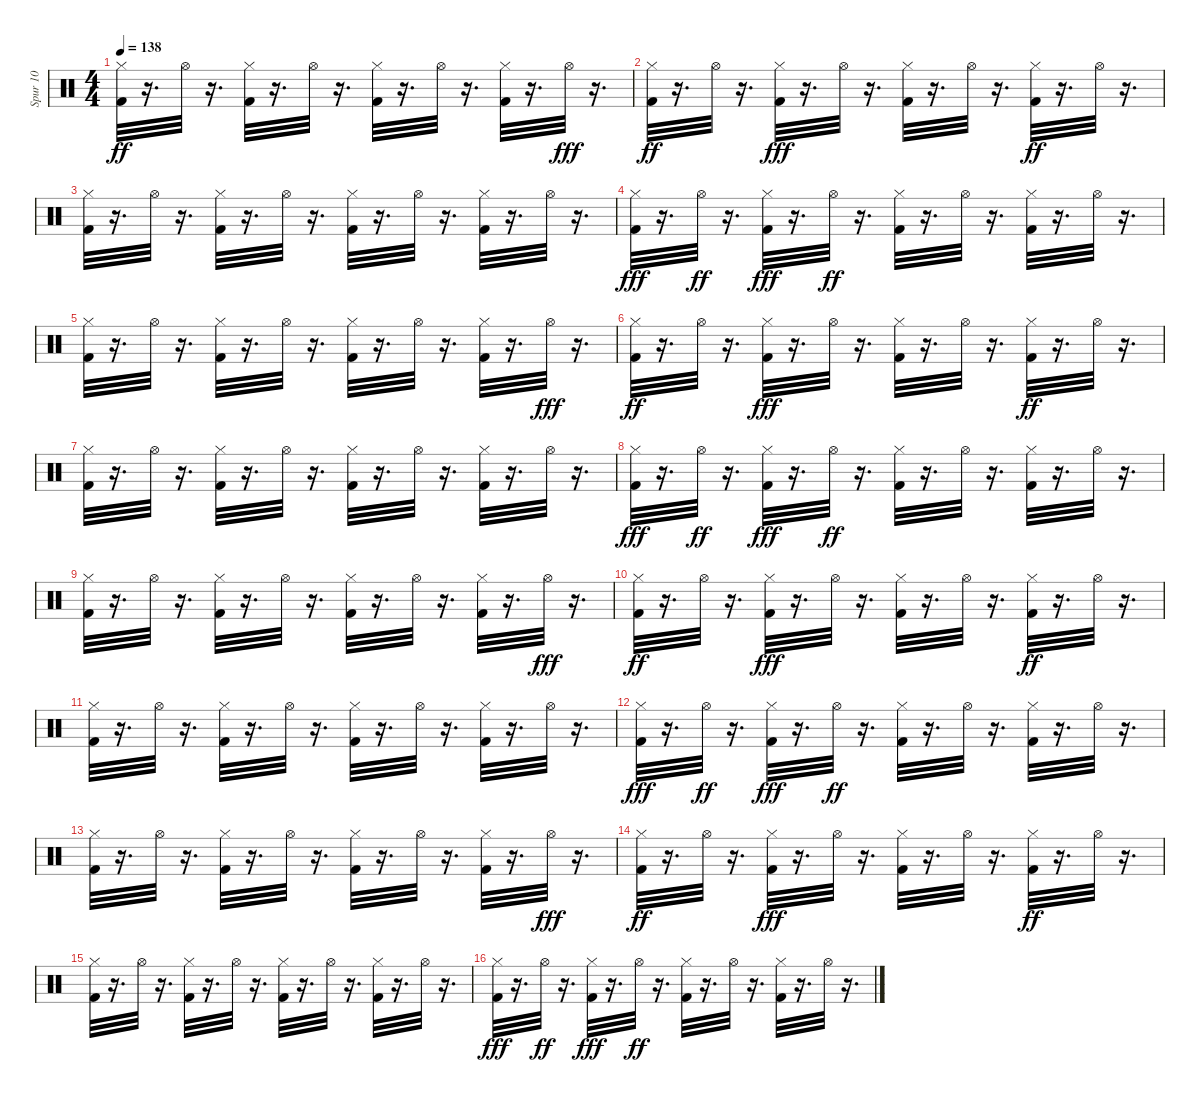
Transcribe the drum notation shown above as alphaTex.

\track ("Spur 10" "Spur 10") {instrument percussion}
\staff {score}
\articulation defaults
\ts (4 4)
\tempo 138
\clef neutral
\ks c
("Kick (hit) 2" "Hi-Hat (closed)").32{dy ff} r.16{d} "Hi-Hat (open)".32 r.16{d} ("Kick (hit) 2" "Hi-Hat (closed)").32 r.16{d} "Hi-Hat (open)".32 r.16{d} ("Kick (hit) 2" "Hi-Hat (closed)").32 r.16{d} "Hi-Hat (open)".32 r.16{d} ("Kick (hit) 2" "Hi-Hat (closed)").32 r.16{d} "Hi-Hat (open)".32{dy fff} r.16{d} |
("Kick (hit) 2" "Hi-Hat (closed)").32{dy ff} r.16{d} "Hi-Hat (open)".32 r.16{d} ("Kick (hit) 2" "Hi-Hat (closed)").32{dy fff} r.16{d} "Hi-Hat (open)".32 r.16{d} ("Kick (hit) 2" "Hi-Hat (closed)").32 r.16{d} "Hi-Hat (open)".32 r.16{d} ("Kick (hit) 2" "Hi-Hat (closed)").32{dy ff} r.16{d} "Hi-Hat (open)".32 r.16{d} |
("Kick (hit) 2" "Hi-Hat (closed)").32 r.16{d} "Hi-Hat (open)".32 r.16{d} ("Kick (hit) 2" "Hi-Hat (closed)").32 r.16{d} "Hi-Hat (open)".32 r.16{d} ("Kick (hit) 2" "Hi-Hat (closed)").32 r.16{d} "Hi-Hat (open)".32 r.16{d} ("Kick (hit) 2" "Hi-Hat (closed)").32 r.16{d} "Hi-Hat (open)".32 r.16{d} |
("Kick (hit) 2" "Hi-Hat (closed)").32{dy fff} r.16{d} "Hi-Hat (open)".32{dy ff} r.16{d} ("Kick (hit) 2" "Hi-Hat (closed)").32{dy fff} r.16{d} "Hi-Hat (open)".32{dy ff} r.16{d} ("Kick (hit) 2" "Hi-Hat (closed)").32 r.16{d} "Hi-Hat (open)".32 r.16{d} ("Kick (hit) 2" "Hi-Hat (closed)").32 r.16{d} "Hi-Hat (open)".32 r.16{d} |
("Kick (hit) 2" "Hi-Hat (closed)").32 r.16{d} "Hi-Hat (open)".32 r.16{d} ("Kick (hit) 2" "Hi-Hat (closed)").32 r.16{d} "Hi-Hat (open)".32 r.16{d} ("Kick (hit) 2" "Hi-Hat (closed)").32 r.16{d} "Hi-Hat (open)".32 r.16{d} ("Kick (hit) 2" "Hi-Hat (closed)").32 r.16{d} "Hi-Hat (open)".32{dy fff} r.16{d} |
("Kick (hit) 2" "Hi-Hat (closed)").32{dy ff} r.16{d} "Hi-Hat (open)".32 r.16{d} ("Kick (hit) 2" "Hi-Hat (closed)").32{dy fff} r.16{d} "Hi-Hat (open)".32 r.16{d} ("Kick (hit) 2" "Hi-Hat (closed)").32 r.16{d} "Hi-Hat (open)".32 r.16{d} ("Kick (hit) 2" "Hi-Hat (closed)").32{dy ff} r.16{d} "Hi-Hat (open)".32 r.16{d} |
("Kick (hit) 2" "Hi-Hat (closed)").32 r.16{d} "Hi-Hat (open)".32 r.16{d} ("Kick (hit) 2" "Hi-Hat (closed)").32 r.16{d} "Hi-Hat (open)".32 r.16{d} ("Kick (hit) 2" "Hi-Hat (closed)").32 r.16{d} "Hi-Hat (open)".32 r.16{d} ("Kick (hit) 2" "Hi-Hat (closed)").32 r.16{d} "Hi-Hat (open)".32 r.16{d} |
("Kick (hit) 2" "Hi-Hat (closed)").32{dy fff} r.16{d} "Hi-Hat (open)".32{dy ff} r.16{d} ("Kick (hit) 2" "Hi-Hat (closed)").32{dy fff} r.16{d} "Hi-Hat (open)".32{dy ff} r.16{d} ("Kick (hit) 2" "Hi-Hat (closed)").32 r.16{d} "Hi-Hat (open)".32 r.16{d} ("Kick (hit) 2" "Hi-Hat (closed)").32 r.16{d} "Hi-Hat (open)".32 r.16{d} |
("Kick (hit) 2" "Hi-Hat (closed)").32 r.16{d} "Hi-Hat (open)".32 r.16{d} ("Kick (hit) 2" "Hi-Hat (closed)").32 r.16{d} "Hi-Hat (open)".32 r.16{d} ("Kick (hit) 2" "Hi-Hat (closed)").32 r.16{d} "Hi-Hat (open)".32 r.16{d} ("Kick (hit) 2" "Hi-Hat (closed)").32 r.16{d} "Hi-Hat (open)".32{dy fff} r.16{d} |
("Kick (hit) 2" "Hi-Hat (closed)").32{dy ff} r.16{d} "Hi-Hat (open)".32 r.16{d} ("Kick (hit) 2" "Hi-Hat (closed)").32{dy fff} r.16{d} "Hi-Hat (open)".32 r.16{d} ("Kick (hit) 2" "Hi-Hat (closed)").32 r.16{d} "Hi-Hat (open)".32 r.16{d} ("Kick (hit) 2" "Hi-Hat (closed)").32{dy ff} r.16{d} "Hi-Hat (open)".32 r.16{d} |
("Kick (hit) 2" "Hi-Hat (closed)").32 r.16{d} "Hi-Hat (open)".32 r.16{d} ("Kick (hit) 2" "Hi-Hat (closed)").32 r.16{d} "Hi-Hat (open)".32 r.16{d} ("Kick (hit) 2" "Hi-Hat (closed)").32 r.16{d} "Hi-Hat (open)".32 r.16{d} ("Kick (hit) 2" "Hi-Hat (closed)").32 r.16{d} "Hi-Hat (open)".32 r.16{d} |
("Kick (hit) 2" "Hi-Hat (closed)").32{dy fff} r.16{d} "Hi-Hat (open)".32{dy ff} r.16{d} ("Kick (hit) 2" "Hi-Hat (closed)").32{dy fff} r.16{d} "Hi-Hat (open)".32{dy ff} r.16{d} ("Kick (hit) 2" "Hi-Hat (closed)").32 r.16{d} "Hi-Hat (open)".32 r.16{d} ("Kick (hit) 2" "Hi-Hat (closed)").32 r.16{d} "Hi-Hat (open)".32 r.16{d} |
("Kick (hit) 2" "Hi-Hat (closed)").32 r.16{d} "Hi-Hat (open)".32 r.16{d} ("Kick (hit) 2" "Hi-Hat (closed)").32 r.16{d} "Hi-Hat (open)".32 r.16{d} ("Kick (hit) 2" "Hi-Hat (closed)").32 r.16{d} "Hi-Hat (open)".32 r.16{d} ("Kick (hit) 2" "Hi-Hat (closed)").32 r.16{d} "Hi-Hat (open)".32{dy fff} r.16{d} |
("Kick (hit) 2" "Hi-Hat (closed)").32{dy ff} r.16{d} "Hi-Hat (open)".32 r.16{d} ("Kick (hit) 2" "Hi-Hat (closed)").32{dy fff} r.16{d} "Hi-Hat (open)".32 r.16{d} ("Kick (hit) 2" "Hi-Hat (closed)").32 r.16{d} "Hi-Hat (open)".32 r.16{d} ("Kick (hit) 2" "Hi-Hat (closed)").32{dy ff} r.16{d} "Hi-Hat (open)".32 r.16{d} |
("Kick (hit) 2" "Hi-Hat (closed)").32 r.16{d} "Hi-Hat (open)".32 r.16{d} ("Kick (hit) 2" "Hi-Hat (closed)").32 r.16{d} "Hi-Hat (open)".32 r.16{d} ("Kick (hit) 2" "Hi-Hat (closed)").32 r.16{d} "Hi-Hat (open)".32 r.16{d} ("Kick (hit) 2" "Hi-Hat (closed)").32 r.16{d} "Hi-Hat (open)".32 r.16{d} |
("Kick (hit) 2" "Hi-Hat (closed)").32{dy fff} r.16{d} "Hi-Hat (open)".32{dy ff} r.16{d} ("Kick (hit) 2" "Hi-Hat (closed)").32{dy fff} r.16{d} "Hi-Hat (open)".32{dy ff} r.16{d} ("Kick (hit) 2" "Hi-Hat (closed)").32 r.16{d} "Hi-Hat (open)".32 r.16{d} ("Kick (hit) 2" "Hi-Hat (closed)").32 r.16{d} "Hi-Hat (open)".32 r.16{d}
